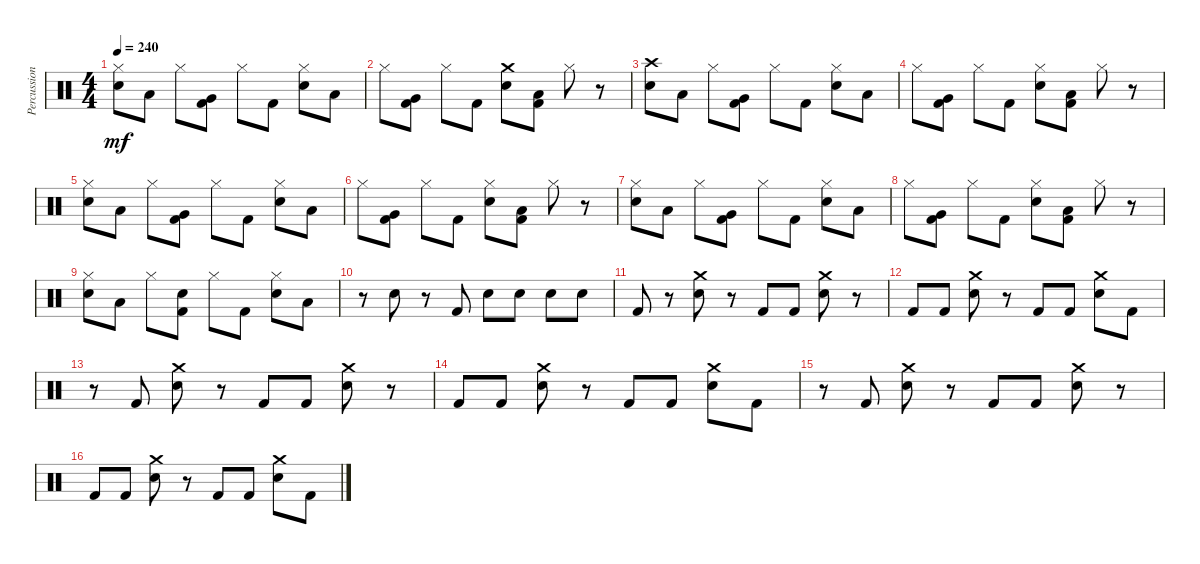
\track ("Percussion" "Percussion") {instrument percussion}
\staff {score}
\articulation defaults
\ts (4 4)
\tempo 240
\clef neutral
\ks c
("Electric Snare (hit)" "Hi-Hat (closed)").8{dy mf} "Low Tom (hit)".8 "Hi-Hat (closed)".8 ("Very Low Tom (hit)" "Kick (hit) 2").8 "Hi-Hat (closed)".8 "Kick (hit) 2".8 ("Electric Snare (hit)" "Hi-Hat (closed)").8 "Low Tom (hit)".8 |
"Hi-Hat (closed)".8 ("Kick (hit) 2" "Very Low Tom (hit)").8 "Hi-Hat (closed)".8 "Kick (hit) 2".8 ("Electric Snare (hit)" "Crash medium (hit)").8 ("Low Tom (hit)" "Kick (hit) 2").8 "Hi-Hat (closed)".8 r.8 |
("Electric Snare (hit)" "Crash high (hit)").8 "Low Tom (hit)".8 "Hi-Hat (closed)".8 ("Very Low Tom (hit)" "Kick (hit) 2").8 "Hi-Hat (closed)".8 "Kick (hit) 2".8 ("Electric Snare (hit)" "Hi-Hat (closed)").8 "Low Tom (hit)".8 |
"Hi-Hat (closed)".8 ("Kick (hit) 2" "Very Low Tom (hit)").8 "Hi-Hat (closed)".8 "Kick (hit) 2".8 ("Electric Snare (hit)" "Hi-Hat (closed)").8 ("Low Tom (hit)" "Kick (hit) 2").8 "Hi-Hat (closed)".8 r.8 |
("Electric Snare (hit)" "Hi-Hat (closed)").8 "Low Tom (hit)".8 "Hi-Hat (closed)".8 ("Very Low Tom (hit)" "Kick (hit) 2").8 "Hi-Hat (closed)".8 "Kick (hit) 2".8 ("Electric Snare (hit)" "Hi-Hat (closed)").8 "Low Tom (hit)".8 |
"Hi-Hat (closed)".8 ("Kick (hit) 2" "Very Low Tom (hit)").8 "Hi-Hat (closed)".8 "Kick (hit) 2".8 ("Electric Snare (hit)" "Hi-Hat (closed)").8 ("Low Tom (hit)" "Kick (hit) 2").8 "Hi-Hat (closed)".8 r.8 |
("Electric Snare (hit)" "Hi-Hat (closed)").8 "Low Tom (hit)".8 "Hi-Hat (closed)".8 ("Very Low Tom (hit)" "Kick (hit) 2").8 "Hi-Hat (closed)".8 "Kick (hit) 2".8 ("Electric Snare (hit)" "Hi-Hat (closed)").8 "Low Tom (hit)".8 |
"Hi-Hat (closed)".8 ("Kick (hit) 2" "Very Low Tom (hit)").8 "Hi-Hat (closed)".8 "Kick (hit) 2".8 ("Electric Snare (hit)" "Hi-Hat (closed)").8 ("Low Tom (hit)" "Kick (hit) 2").8 "Hi-Hat (closed)".8 r.8 |
("Electric Snare (hit)" "Hi-Hat (closed)").8 "Low Tom (hit)".8 "Hi-Hat (closed)".8 ("Electric Snare (hit)" "Kick (hit) 2").8 "Hi-Hat (closed)".8 "Kick (hit) 2".8 ("Electric Snare (hit)" "Hi-Hat (closed)").8 "Low Tom (hit)".8 |
r.8 "Electric Snare (hit)".8 r.8 "Kick (hit) 2".8 "Electric Snare (hit)".8 "Electric Snare (hit)".8 "Electric Snare (hit)".8 "Electric Snare (hit)".8 |
"Kick (hit) 2".8 r.8 ("Electric Snare (hit)" "Crash medium (hit)").8 r.8 "Kick (hit) 2".8 "Kick (hit) 2".8 ("Electric Snare (hit)" "Crash medium (hit)").8 r.8 |
"Kick (hit) 2".8 "Kick (hit) 2".8 ("Electric Snare (hit)" "Crash medium (hit)").8 r.8 "Kick (hit) 2".8 "Kick (hit) 2".8 ("Electric Snare (hit)" "Crash medium (hit)").8 "Kick (hit) 2".8 |
r.8 "Kick (hit) 2".8 ("Electric Snare (hit)" "Crash medium (hit)").8 r.8 "Kick (hit) 2".8 "Kick (hit) 2".8 ("Electric Snare (hit)" "Crash medium (hit)").8 r.8 |
"Kick (hit) 2".8 "Kick (hit) 2".8 ("Electric Snare (hit)" "Crash medium (hit)").8 r.8 "Kick (hit) 2".8 "Kick (hit) 2".8 ("Electric Snare (hit)" "Crash medium (hit)").8 "Kick (hit) 2".8 |
r.8 "Kick (hit) 2".8 ("Electric Snare (hit)" "Crash medium (hit)").8 r.8 "Kick (hit) 2".8 "Kick (hit) 2".8 ("Electric Snare (hit)" "Crash medium (hit)").8 r.8 |
"Kick (hit) 2".8 "Kick (hit) 2".8 ("Electric Snare (hit)" "Crash medium (hit)").8 r.8 "Kick (hit) 2".8 "Kick (hit) 2".8 ("Electric Snare (hit)" "Crash medium (hit)").8 "Kick (hit) 2".8
